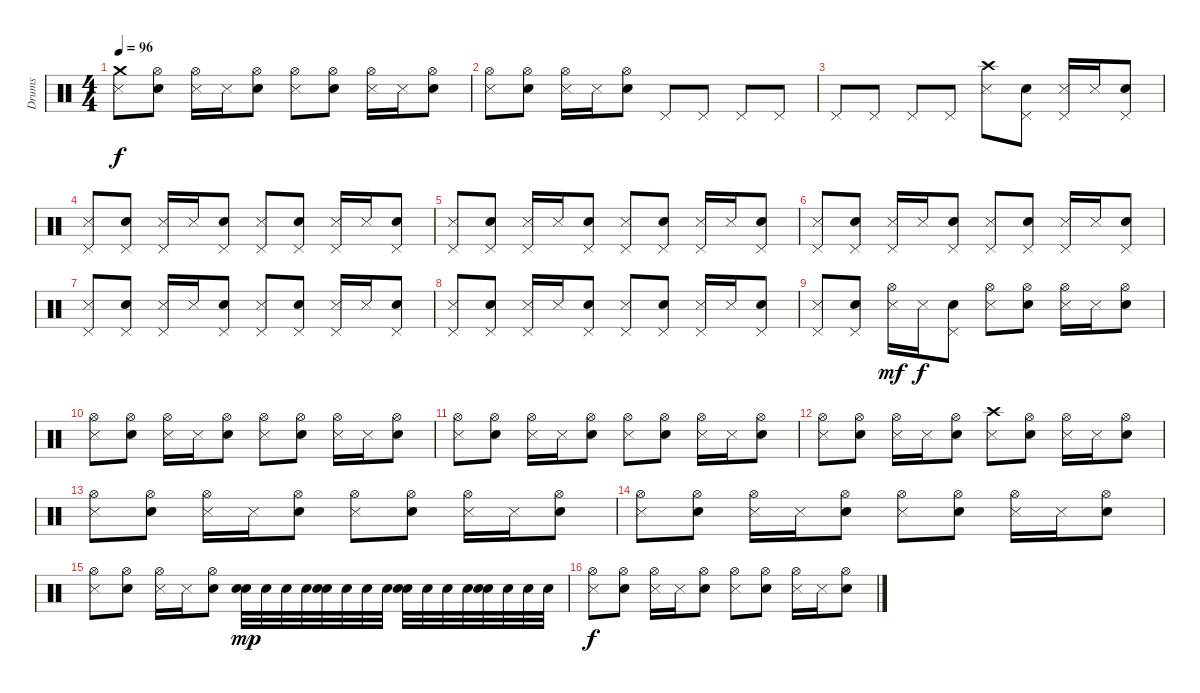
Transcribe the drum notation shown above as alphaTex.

\track ("Drums" "Drums") {instrument percussion}
\staff {score}
\articulation defaults
\ts (4 4)
\tempo 96
\clef neutral
\ks c
("Crash medium (hit)" "Metronome (hit)").8{dy f} ("Hi-Hat (open)" "Electric Snare (hit)").8 ("Metronome (hit)" "Hi-Hat (open)").16 "Metronome (hit)".16 ("Hi-Hat (open)" "Electric Snare (hit)").8 ("Hi-Hat (open)" "Metronome (hit)").8 ("Electric Snare (hit)" "Hi-Hat (open)").8 ("Metronome (hit)" "Hi-Hat (open)").16 "Metronome (hit)".16 ("Electric Snare (hit)" "Hi-Hat (open)").8 |
("Hi-Hat (open)" "Metronome (hit)").8 ("Hi-Hat (open)" "Electric Snare (hit)").8 ("Metronome (hit)" "Hi-Hat (open)").16 "Metronome (hit)".16 ("Hi-Hat (open)" "Electric Snare (hit)").8 "Pedal Hi-Hat (hit)".8 "Pedal Hi-Hat (hit)".8 "Pedal Hi-Hat (hit)".8 "Pedal Hi-Hat (hit)".8 |
"Pedal Hi-Hat (hit)".8 "Pedal Hi-Hat (hit)".8 "Pedal Hi-Hat (hit)".8 "Pedal Hi-Hat (hit)".8 ("Crash high (hit)" "Metronome (hit)").8 ("Pedal Hi-Hat (hit)" "Electric Snare (hit)").8 ("Metronome (hit)" "Pedal Hi-Hat (hit)").16 "Metronome (hit)".16 ("Pedal Hi-Hat (hit)" "Electric Snare (hit)").8 |
("Pedal Hi-Hat (hit)" "Metronome (hit)").8 ("Electric Snare (hit)" "Pedal Hi-Hat (hit)").8 ("Pedal Hi-Hat (hit)" "Metronome (hit)").16 "Metronome (hit)".16 ("Electric Snare (hit)" "Pedal Hi-Hat (hit)").8 ("Metronome (hit)" "Pedal Hi-Hat (hit)").8 ("Electric Snare (hit)" "Pedal Hi-Hat (hit)").8 ("Metronome (hit)" "Pedal Hi-Hat (hit)").16 "Metronome (hit)".16 ("Pedal Hi-Hat (hit)" "Electric Snare (hit)").8 |
("Metronome (hit)" "Pedal Hi-Hat (hit)").8 ("Pedal Hi-Hat (hit)" "Electric Snare (hit)").8 ("Metronome (hit)" "Pedal Hi-Hat (hit)").16 "Metronome (hit)".16 ("Pedal Hi-Hat (hit)" "Electric Snare (hit)").8 ("Pedal Hi-Hat (hit)" "Metronome (hit)").8 ("Pedal Hi-Hat (hit)" "Electric Snare (hit)").8 ("Pedal Hi-Hat (hit)" "Metronome (hit)").16 "Metronome (hit)".16 ("Electric Snare (hit)" "Pedal Hi-Hat (hit)").8 |
("Pedal Hi-Hat (hit)" "Metronome (hit)").8 ("Electric Snare (hit)" "Pedal Hi-Hat (hit)").8 ("Metronome (hit)" "Pedal Hi-Hat (hit)").16 "Metronome (hit)".16 ("Pedal Hi-Hat (hit)" "Electric Snare (hit)").8 ("Metronome (hit)" "Pedal Hi-Hat (hit)").8 ("Pedal Hi-Hat (hit)" "Electric Snare (hit)").8 ("Metronome (hit)" "Pedal Hi-Hat (hit)").16 "Metronome (hit)".16 ("Electric Snare (hit)" "Pedal Hi-Hat (hit)").8 |
("Pedal Hi-Hat (hit)" "Metronome (hit)").8 ("Electric Snare (hit)" "Pedal Hi-Hat (hit)").8 ("Metronome (hit)" "Pedal Hi-Hat (hit)").16 "Metronome (hit)".16 ("Electric Snare (hit)" "Pedal Hi-Hat (hit)").8 ("Pedal Hi-Hat (hit)" "Metronome (hit)").8 ("Electric Snare (hit)" "Pedal Hi-Hat (hit)").8 ("Pedal Hi-Hat (hit)" "Metronome (hit)").16 "Metronome (hit)".16 ("Electric Snare (hit)" "Pedal Hi-Hat (hit)").8 |
("Metronome (hit)" "Pedal Hi-Hat (hit)").8 ("Pedal Hi-Hat (hit)" "Electric Snare (hit)").8 ("Metronome (hit)" "Pedal Hi-Hat (hit)").16 "Metronome (hit)".16 ("Pedal Hi-Hat (hit)" "Electric Snare (hit)").8 ("Metronome (hit)" "Pedal Hi-Hat (hit)").8 ("Pedal Hi-Hat (hit)" "Electric Snare (hit)").8 ("Metronome (hit)" "Pedal Hi-Hat (hit)").16 "Metronome (hit)".16 ("Electric Snare (hit)" "Pedal Hi-Hat (hit)").8 |
("Pedal Hi-Hat (hit)" "Metronome (hit)").8 ("Electric Snare (hit)" "Pedal Hi-Hat (hit)").8 ("Metronome (hit)" "Hi-Hat (open)").16{dy mf} "Metronome (hit)".16{dy f} ("Electric Snare (hit)" "Pedal Hi-Hat (hit)").8 ("Metronome (hit)" "Hi-Hat (open)").8 ("Hi-Hat (open)" "Electric Snare (hit)").8 ("Metronome (hit)" "Hi-Hat (open)").16 "Metronome (hit)".16 ("Hi-Hat (open)" "Electric Snare (hit)").8 |
("Metronome (hit)" "Hi-Hat (open)").8 ("Hi-Hat (open)" "Electric Snare (hit)").8 ("Hi-Hat (open)" "Metronome (hit)").16 "Metronome (hit)".16 ("Hi-Hat (open)" "Electric Snare (hit)").8 ("Metronome (hit)" "Hi-Hat (open)").8 ("Hi-Hat (open)" "Electric Snare (hit)").8 ("Metronome (hit)" "Hi-Hat (open)").16 "Metronome (hit)".16 ("Electric Snare (hit)" "Hi-Hat (open)").8 |
("Hi-Hat (open)" "Metronome (hit)").8 ("Electric Snare (hit)" "Hi-Hat (open)").8 ("Hi-Hat (open)" "Metronome (hit)").16 "Metronome (hit)".16 ("Electric Snare (hit)" "Hi-Hat (open)").8 ("Metronome (hit)" "Hi-Hat (open)").8 ("Hi-Hat (open)" "Electric Snare (hit)").8 ("Hi-Hat (open)" "Metronome (hit)").16 "Metronome (hit)".16 ("Electric Snare (hit)" "Hi-Hat (open)").8 |
("Hi-Hat (open)" "Metronome (hit)").8 ("Electric Snare (hit)" "Hi-Hat (open)").8 ("Metronome (hit)" "Hi-Hat (open)").16 "Metronome (hit)".16 ("Hi-Hat (open)" "Electric Snare (hit)").8 ("Crash high (hit)" "Metronome (hit)").8 ("Hi-Hat (open)" "Electric Snare (hit)").8 ("Hi-Hat (open)" "Metronome (hit)").16 "Metronome (hit)".16 ("Hi-Hat (open)" "Electric Snare (hit)").8 |
("Hi-Hat (open)" "Metronome (hit)").8 ("Hi-Hat (open)" "Electric Snare (hit)").8 ("Metronome (hit)" "Hi-Hat (open)").16 "Metronome (hit)".16 ("Electric Snare (hit)" "Hi-Hat (open)").8 ("Hi-Hat (open)" "Metronome (hit)").8 ("Hi-Hat (open)" "Electric Snare (hit)").8 ("Metronome (hit)" "Hi-Hat (open)").16 "Metronome (hit)".16 ("Electric Snare (hit)" "Hi-Hat (open)").8 |
("Hi-Hat (open)" "Metronome (hit)").8 ("Hi-Hat (open)" "Electric Snare (hit)").8 ("Hi-Hat (open)" "Metronome (hit)").16 "Metronome (hit)".16 ("Hi-Hat (open)" "Electric Snare (hit)").8 ("Hi-Hat (open)" "Metronome (hit)").8 ("Electric Snare (hit)" "Hi-Hat (open)").8 ("Hi-Hat (open)" "Metronome (hit)").16 "Metronome (hit)".16 ("Hi-Hat (open)" "Electric Snare (hit)").8 |
("Hi-Hat (open)" "Metronome (hit)").8 ("Hi-Hat (open)" "Electric Snare (hit)").8 ("Metronome (hit)" "Hi-Hat (open)").16 "Metronome (hit)".16 ("Hi-Hat (open)" "Electric Snare (hit)").8 ("Electric Snare (hit)" "Electric Snare (hit)").32{dy mp} "Electric Snare (hit)".32 "Electric Snare (hit)".32 "Electric Snare (hit)".32 ("Electric Snare (hit)" "Electric Snare (hit)").32 "Electric Snare (hit)".32 "Electric Snare (hit)".32 "Electric Snare (hit)".32 ("Electric Snare (hit)" "Electric Snare (hit)").32 "Electric Snare (hit)".32 "Electric Snare (hit)".32 "Electric Snare (hit)".32 ("Electric Snare (hit)" "Electric Snare (hit)").32 "Electric Snare (hit)".32 "Electric Snare (hit)".32 "Electric Snare (hit)".32 |
("Metronome (hit)" "Hi-Hat (open)").8{dy f} ("Hi-Hat (open)" "Electric Snare (hit)").8 ("Hi-Hat (open)" "Metronome (hit)").16 "Metronome (hit)".16 ("Hi-Hat (open)" "Electric Snare (hit)").8 ("Hi-Hat (open)" "Metronome (hit)").8 ("Electric Snare (hit)" "Hi-Hat (open)").8 ("Hi-Hat (open)" "Metronome (hit)").16 "Metronome (hit)".16 ("Electric Snare (hit)" "Hi-Hat (open)").8
